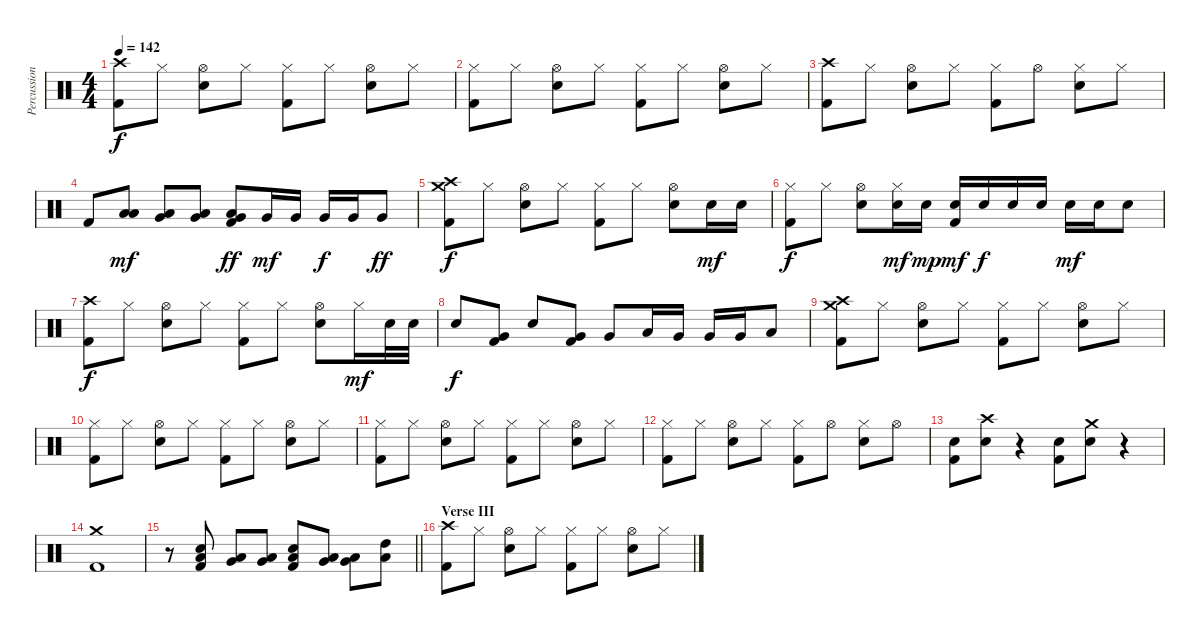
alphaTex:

\track ("Percussion" "Percussion") {instrument percussion}
\staff {score}
\articulation defaults
\ts (4 4)
\tempo 142
\clef neutral
\ks c
("Kick (hit) 2" "Crash high (hit)").8{dy f} "Hi-Hat (closed)".8 ("Snare (hit) 2" "Hi-Hat (open)").8 "Hi-Hat (closed)".8 ("Kick (hit) 2" "Hi-Hat (closed)").8 "Hi-Hat (closed)".8 ("Snare (hit) 2" "Hi-Hat (open)").8 "Hi-Hat (closed)".8 |
("Kick (hit) 2" "Hi-Hat (closed)").8 "Hi-Hat (closed)".8 ("Snare (hit) 2" "Hi-Hat (open)").8 "Hi-Hat (closed)".8 ("Kick (hit) 2" "Hi-Hat (closed)").8 "Hi-Hat (closed)".8 ("Snare (hit) 2" "Hi-Hat (open)").8 "Hi-Hat (closed)".8 |
("Kick (hit) 2" "Crash high (hit)").8 "Hi-Hat (closed)".8 ("Snare (hit) 2" "Hi-Hat (open)").8 "Hi-Hat (closed)".8 ("Kick (hit) 2" "Hi-Hat (closed)").8 "Hi-Hat (open)".8 ("Snare (hit) 2" "Hi-Hat (closed)").8 "Hi-Hat (closed)".8 |
"Kick (hit) 2".8 ("Low Floor Tom (hit)" "Low Tom (hit)").8{dy mf} ("Low Floor Tom (hit)" "Very Low Tom (hit)").8 ("Low Floor Tom (hit)" "Very Low Tom (hit)").8 ("Kick (hit) 2" "Very Low Tom (hit)" "Low Tom (hit)").8{dy ff} "Very Low Tom (hit)".16{dy mf} "Very Low Tom (hit)".16 "Very Low Tom (hit)".16{dy f} "Very Low Tom (hit)".16 "Very Low Tom (hit)".8{dy ff} |
("Kick (hit) 2" "Crash high (hit)" "Crash medium (hit)").8{dy f} "Hi-Hat (closed)".8 ("Snare (hit) 2" "Hi-Hat (open)").8 "Hi-Hat (closed)".8 ("Kick (hit) 2" "Hi-Hat (closed)").8 "Hi-Hat (closed)".8 ("Snare (hit) 2" "Hi-Hat (open)").8 "Snare (hit) 2".16{dy mf} "Snare (hit) 2".16 |
("Kick (hit) 2" "Hi-Hat (closed)").8{dy f} "Hi-Hat (closed)".8 ("Snare (hit) 2" "Hi-Hat (open)").8 ("Snare (hit) 2" "Hi-Hat (closed)").16{dy mf} "Snare (hit) 2".16{dy mp} ("Kick (hit) 2" "Snare (hit) 2").16{dy mf} "Snare (hit) 2".16{dy f} "Snare (hit) 2".16 "Snare (hit) 2".16 "Snare (hit) 2".16{dy mf} "Snare (hit) 2".16 "Snare (hit) 2".8 |
("Kick (hit) 2" "Crash high (hit)").8{dy f} "Hi-Hat (closed)".8 ("Snare (hit) 2" "Hi-Hat (open)").8 "Hi-Hat (closed)".8 ("Kick (hit) 2" "Hi-Hat (closed)").8 "Hi-Hat (closed)".8 ("Snare (hit) 2" "Hi-Hat (open)").8 "Hi-Hat (closed)".16{dy mf} "Snare (hit) 2".32 "Snare (hit) 2".32 |
"Snare (hit) 2".8{dy f} ("Kick (hit) 2" "Very Low Tom (hit)").8 "Snare (hit) 2".8 ("Kick (hit) 2" "Very Low Tom (hit)").8 "Very Low Tom (hit)".8 "Low Tom (hit)".16 "Very Low Tom (hit)".16 "Very Low Tom (hit)".16 "Very Low Tom (hit)".16 "Low Floor Tom (hit)".8 |
("Kick (hit) 2" "Crash high (hit)" "Crash medium (hit)").8 "Hi-Hat (closed)".8 ("Snare (hit) 2" "Hi-Hat (open)").8 "Hi-Hat (closed)".8 ("Kick (hit) 2" "Hi-Hat (closed)").8 "Hi-Hat (closed)".8 ("Snare (hit) 2" "Hi-Hat (open)").8 "Hi-Hat (closed)".8 |
("Kick (hit) 2" "Hi-Hat (closed)").8 "Hi-Hat (closed)".8 ("Snare (hit) 2" "Hi-Hat (open)").8 "Hi-Hat (closed)".8 ("Kick (hit) 2" "Hi-Hat (closed)").8 "Hi-Hat (closed)".8 ("Snare (hit) 2" "Hi-Hat (open)").8 "Hi-Hat (closed)".8 |
("Kick (hit) 2" "Hi-Hat (closed)").8 "Hi-Hat (closed)".8 ("Snare (hit) 2" "Hi-Hat (open)").8 "Hi-Hat (closed)".8 ("Kick (hit) 2" "Hi-Hat (closed)").8 "Hi-Hat (closed)".8 ("Snare (hit) 2" "Hi-Hat (open)").8 "Hi-Hat (closed)".8 |
("Kick (hit) 2" "Hi-Hat (closed)").8 "Hi-Hat (closed)".8 ("Snare (hit) 2" "Hi-Hat (open)").8 "Hi-Hat (closed)".8 ("Kick (hit) 2" "Hi-Hat (closed)").8 "Hi-Hat (open)".8 ("Snare (hit) 2" "Hi-Hat (closed)").8 "Hi-Hat (open)".8 |
("Kick (hit) 2" "Snare (hit) 2").8 ("Snare (hit) 2" "Crash high (hit)").8 r.4 ("Kick (hit) 2" "Snare (hit) 2").8 ("Snare (hit) 2" "Crash medium (hit)").8 r.4 |
("Kick (hit) 2" "Crash medium (hit)").1 |
\barLineRight lightlight
r.8 ("Kick (hit) 2" "Snare (hit) 2" "Low Tom (hit)").8 ("Low Tom (hit)" "Very Low Tom (hit)").8 ("Low Tom (hit)" "Very Low Tom (hit)").8 ("Kick (hit) 2" "Snare (hit) 2" "Low Tom (hit)").8 ("Low Tom (hit)" "Very Low Tom (hit)").8 ("Low Tom (hit)" "Very Low Tom (hit)").8 ("Low Tom (hit)" "High Tom (hit)").8 |
\section ("" "Verse III")
("Kick (hit) 2" "Crash high (hit)").8 "Hi-Hat (closed)".8 ("Snare (hit) 2" "Hi-Hat (open)").8 "Hi-Hat (closed)".8 ("Kick (hit) 2" "Hi-Hat (closed)").8 "Hi-Hat (closed)".8 ("Snare (hit) 2" "Hi-Hat (open)").8 "Hi-Hat (closed)".8
